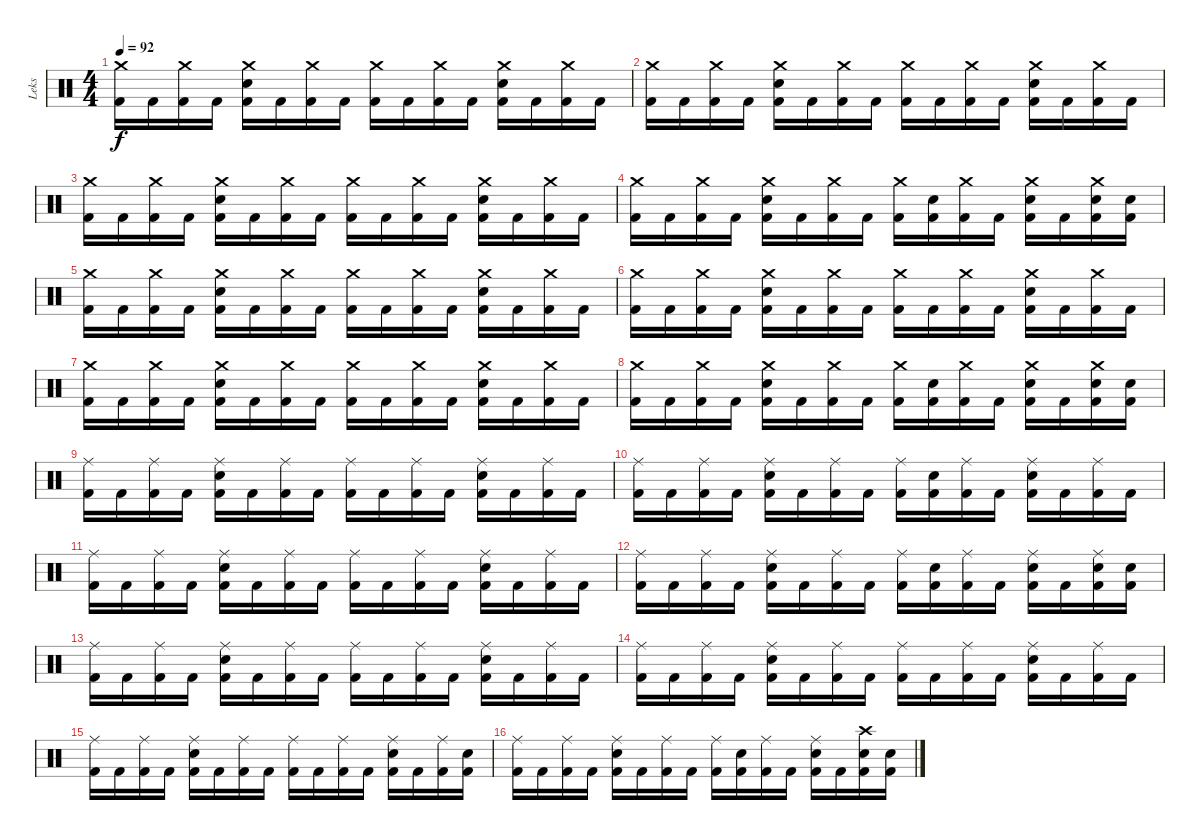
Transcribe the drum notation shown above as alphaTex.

\track ("Leks" "Leks") {instrument percussion}
\staff {score}
\articulation defaults
\ts (4 4)
\tempo 92
\clef neutral
\ks c
("Crash medium (hit)" "Kick (hit) 2").16{dy f} "Kick (hit) 2".16 ("Crash medium (hit)" "Kick (hit) 2").16 "Kick (hit) 2".16 ("Crash medium (hit)" "Snare (hit) 2" "Kick (hit) 2").16 "Kick (hit) 2".16 ("Crash medium (hit)" "Kick (hit) 2").16 "Kick (hit) 2".16 ("Crash medium (hit)" "Kick (hit) 2").16 "Kick (hit) 2".16 ("Crash medium (hit)" "Kick (hit) 2").16 "Kick (hit) 2".16 ("Crash medium (hit)" "Snare (hit) 2" "Kick (hit) 2").16 "Kick (hit) 2".16 ("Crash medium (hit)" "Kick (hit) 2").16 "Kick (hit) 2".16 |
("Crash medium (hit)" "Kick (hit) 2").16 "Kick (hit) 2".16 ("Crash medium (hit)" "Kick (hit) 2").16 "Kick (hit) 2".16 ("Crash medium (hit)" "Snare (hit) 2" "Kick (hit) 2").16 "Kick (hit) 2".16 ("Crash medium (hit)" "Kick (hit) 2").16 "Kick (hit) 2".16 ("Crash medium (hit)" "Kick (hit) 2").16 "Kick (hit) 2".16 ("Crash medium (hit)" "Kick (hit) 2").16 "Kick (hit) 2".16 ("Crash medium (hit)" "Snare (hit) 2" "Kick (hit) 2").16 "Kick (hit) 2".16 ("Crash medium (hit)" "Kick (hit) 2").16 "Kick (hit) 2".16 |
("Crash medium (hit)" "Kick (hit) 2").16 "Kick (hit) 2".16 ("Crash medium (hit)" "Kick (hit) 2").16 "Kick (hit) 2".16 ("Crash medium (hit)" "Snare (hit) 2" "Kick (hit) 2").16 "Kick (hit) 2".16 ("Crash medium (hit)" "Kick (hit) 2").16 "Kick (hit) 2".16 ("Crash medium (hit)" "Kick (hit) 2").16 "Kick (hit) 2".16 ("Crash medium (hit)" "Kick (hit) 2").16 "Kick (hit) 2".16 ("Crash medium (hit)" "Snare (hit) 2" "Kick (hit) 2").16 "Kick (hit) 2".16 ("Crash medium (hit)" "Kick (hit) 2").16 "Kick (hit) 2".16 |
("Crash medium (hit)" "Kick (hit) 2").16 "Kick (hit) 2".16 ("Crash medium (hit)" "Kick (hit) 2").16 "Kick (hit) 2".16 ("Crash medium (hit)" "Snare (hit) 2" "Kick (hit) 2").16 "Kick (hit) 2".16 ("Crash medium (hit)" "Kick (hit) 2").16 "Kick (hit) 2".16 ("Crash medium (hit)" "Kick (hit) 2").16 ("Snare (hit) 2" "Kick (hit) 2").16 ("Crash medium (hit)" "Kick (hit) 2").16 "Kick (hit) 2".16 ("Crash medium (hit)" "Snare (hit) 2" "Kick (hit) 2").16 "Kick (hit) 2".16 ("Crash medium (hit)" "Snare (hit) 2" "Kick (hit) 2").16 ("Snare (hit) 2" "Kick (hit) 2").16 |
("Crash medium (hit)" "Kick (hit) 2").16 "Kick (hit) 2".16 ("Crash medium (hit)" "Kick (hit) 2").16 "Kick (hit) 2".16 ("Crash medium (hit)" "Snare (hit) 2" "Kick (hit) 2").16 "Kick (hit) 2".16 ("Crash medium (hit)" "Kick (hit) 2").16 "Kick (hit) 2".16 ("Crash medium (hit)" "Kick (hit) 2").16 "Kick (hit) 2".16 ("Crash medium (hit)" "Kick (hit) 2").16 "Kick (hit) 2".16 ("Crash medium (hit)" "Snare (hit) 2" "Kick (hit) 2").16 "Kick (hit) 2".16 ("Crash medium (hit)" "Kick (hit) 2").16 "Kick (hit) 2".16 |
("Crash medium (hit)" "Kick (hit) 2").16 "Kick (hit) 2".16 ("Crash medium (hit)" "Kick (hit) 2").16 "Kick (hit) 2".16 ("Crash medium (hit)" "Snare (hit) 2" "Kick (hit) 2").16 "Kick (hit) 2".16 ("Crash medium (hit)" "Kick (hit) 2").16 "Kick (hit) 2".16 ("Crash medium (hit)" "Kick (hit) 2").16 "Kick (hit) 2".16 ("Crash medium (hit)" "Kick (hit) 2").16 "Kick (hit) 2".16 ("Crash medium (hit)" "Snare (hit) 2" "Kick (hit) 2").16 "Kick (hit) 2".16 ("Crash medium (hit)" "Kick (hit) 2").16 "Kick (hit) 2".16 |
("Crash medium (hit)" "Kick (hit) 2").16 "Kick (hit) 2".16 ("Crash medium (hit)" "Kick (hit) 2").16 "Kick (hit) 2".16 ("Crash medium (hit)" "Snare (hit) 2" "Kick (hit) 2").16 "Kick (hit) 2".16 ("Crash medium (hit)" "Kick (hit) 2").16 "Kick (hit) 2".16 ("Crash medium (hit)" "Kick (hit) 2").16 "Kick (hit) 2".16 ("Crash medium (hit)" "Kick (hit) 2").16 "Kick (hit) 2".16 ("Crash medium (hit)" "Snare (hit) 2" "Kick (hit) 2").16 "Kick (hit) 2".16 ("Crash medium (hit)" "Kick (hit) 2").16 "Kick (hit) 2".16 |
("Crash medium (hit)" "Kick (hit) 2").16 "Kick (hit) 2".16 ("Crash medium (hit)" "Kick (hit) 2").16 "Kick (hit) 2".16 ("Crash medium (hit)" "Snare (hit) 2" "Kick (hit) 2").16 "Kick (hit) 2".16 ("Crash medium (hit)" "Kick (hit) 2").16 "Kick (hit) 2".16 ("Crash medium (hit)" "Kick (hit) 2").16 ("Snare (hit) 2" "Kick (hit) 2").16 ("Crash medium (hit)" "Kick (hit) 2").16 "Kick (hit) 2".16 ("Crash medium (hit)" "Snare (hit) 2" "Kick (hit) 2").16 "Kick (hit) 2".16 ("Crash medium (hit)" "Snare (hit) 2" "Kick (hit) 2").16 ("Snare (hit) 2" "Kick (hit) 2").16 |
("Ride (middle)" "Kick (hit) 2").16 "Kick (hit) 2".16 ("Ride (middle)" "Kick (hit) 2").16 "Kick (hit) 2".16 ("Ride (middle)" "Snare (hit) 2" "Kick (hit) 2").16 "Kick (hit) 2".16 ("Ride (middle)" "Kick (hit) 2").16 "Kick (hit) 2".16 ("Ride (middle)" "Kick (hit) 2").16 "Kick (hit) 2".16 ("Ride (middle)" "Kick (hit) 2").16 "Kick (hit) 2".16 ("Ride (middle)" "Snare (hit) 2" "Kick (hit) 2").16 "Kick (hit) 2".16 ("Ride (middle)" "Kick (hit) 2").16 "Kick (hit) 2".16 |
("Ride (middle)" "Kick (hit) 2").16 "Kick (hit) 2".16 ("Ride (middle)" "Kick (hit) 2").16 "Kick (hit) 2".16 ("Ride (middle)" "Snare (hit) 2" "Kick (hit) 2").16 "Kick (hit) 2".16 ("Ride (middle)" "Kick (hit) 2").16 "Kick (hit) 2".16 ("Ride (middle)" "Kick (hit) 2").16 ("Snare (hit) 2" "Kick (hit) 2").16 ("Ride (middle)" "Kick (hit) 2").16 "Kick (hit) 2".16 ("Ride (middle)" "Snare (hit) 2" "Kick (hit) 2").16 "Kick (hit) 2".16 ("Ride (middle)" "Kick (hit) 2").16 "Kick (hit) 2".16 |
("Ride (middle)" "Kick (hit) 2").16 "Kick (hit) 2".16 ("Ride (middle)" "Kick (hit) 2").16 "Kick (hit) 2".16 ("Ride (middle)" "Snare (hit) 2" "Kick (hit) 2").16 "Kick (hit) 2".16 ("Ride (middle)" "Kick (hit) 2").16 "Kick (hit) 2".16 ("Ride (middle)" "Kick (hit) 2").16 "Kick (hit) 2".16 ("Ride (middle)" "Kick (hit) 2").16 "Kick (hit) 2".16 ("Ride (middle)" "Snare (hit) 2" "Kick (hit) 2").16 "Kick (hit) 2".16 ("Ride (middle)" "Kick (hit) 2").16 "Kick (hit) 2".16 |
("Ride (middle)" "Kick (hit) 2").16 "Kick (hit) 2".16 ("Ride (middle)" "Kick (hit) 2").16 "Kick (hit) 2".16 ("Ride (middle)" "Snare (hit) 2" "Kick (hit) 2").16 "Kick (hit) 2".16 ("Ride (middle)" "Kick (hit) 2").16 "Kick (hit) 2".16 ("Ride (middle)" "Kick (hit) 2").16 ("Snare (hit) 2" "Kick (hit) 2").16 ("Ride (middle)" "Kick (hit) 2").16 "Kick (hit) 2".16 ("Ride (middle)" "Snare (hit) 2" "Kick (hit) 2").16 "Kick (hit) 2".16 ("Ride (middle)" "Snare (hit) 2" "Kick (hit) 2").16 ("Snare (hit) 2" "Kick (hit) 2").16 |
("Ride (middle)" "Kick (hit) 2").16 "Kick (hit) 2".16 ("Ride (middle)" "Kick (hit) 2").16 "Kick (hit) 2".16 ("Ride (middle)" "Snare (hit) 2" "Kick (hit) 2").16 "Kick (hit) 2".16 ("Ride (middle)" "Kick (hit) 2").16 "Kick (hit) 2".16 ("Ride (middle)" "Kick (hit) 2").16 "Kick (hit) 2".16 ("Ride (middle)" "Kick (hit) 2").16 "Kick (hit) 2".16 ("Ride (middle)" "Snare (hit) 2" "Kick (hit) 2").16 "Kick (hit) 2".16 ("Ride (middle)" "Kick (hit) 2").16 "Kick (hit) 2".16 |
("Ride (middle)" "Kick (hit) 2").16 "Kick (hit) 2".16 ("Ride (middle)" "Kick (hit) 2").16 "Kick (hit) 2".16 ("Ride (middle)" "Snare (hit) 2" "Kick (hit) 2").16 "Kick (hit) 2".16 ("Ride (middle)" "Kick (hit) 2").16 "Kick (hit) 2".16 ("Ride (middle)" "Kick (hit) 2").16 "Kick (hit) 2".16 ("Ride (middle)" "Kick (hit) 2").16 "Kick (hit) 2".16 ("Ride (middle)" "Snare (hit) 2" "Kick (hit) 2").16 "Kick (hit) 2".16 ("Ride (middle)" "Kick (hit) 2").16 "Kick (hit) 2".16 |
("Ride (middle)" "Kick (hit) 2").16 "Kick (hit) 2".16 ("Ride (middle)" "Kick (hit) 2").16 "Kick (hit) 2".16 ("Ride (middle)" "Snare (hit) 2" "Kick (hit) 2").16 "Kick (hit) 2".16 ("Ride (middle)" "Kick (hit) 2").16 "Kick (hit) 2".16 ("Ride (middle)" "Kick (hit) 2").16 "Kick (hit) 2".16 ("Ride (middle)" "Kick (hit) 2").16 "Kick (hit) 2".16 ("Ride (middle)" "Snare (hit) 2" "Kick (hit) 2").16 "Kick (hit) 2".16 ("Ride (middle)" "Kick (hit) 2").16 ("Snare (hit) 2" "Kick (hit) 2").16 |
("Ride (middle)" "Kick (hit) 2").16 "Kick (hit) 2".16 ("Ride (middle)" "Kick (hit) 2").16 "Kick (hit) 2".16 ("Ride (middle)" "Snare (hit) 2" "Kick (hit) 2").16 "Kick (hit) 2".16 ("Ride (middle)" "Kick (hit) 2").16 "Kick (hit) 2".16 ("Ride (middle)" "Kick (hit) 2").16 ("Snare (hit) 2" "Kick (hit) 2").16 ("Ride (middle)" "Kick (hit) 2").16 "Kick (hit) 2".16 ("Ride (middle)" "Snare (hit) 2" "Kick (hit) 2").16 "Kick (hit) 2".16 ("Crash high (hit)" "Snare (hit) 2" "Kick (hit) 2").16 ("Snare (hit) 2" "Kick (hit) 2").16
